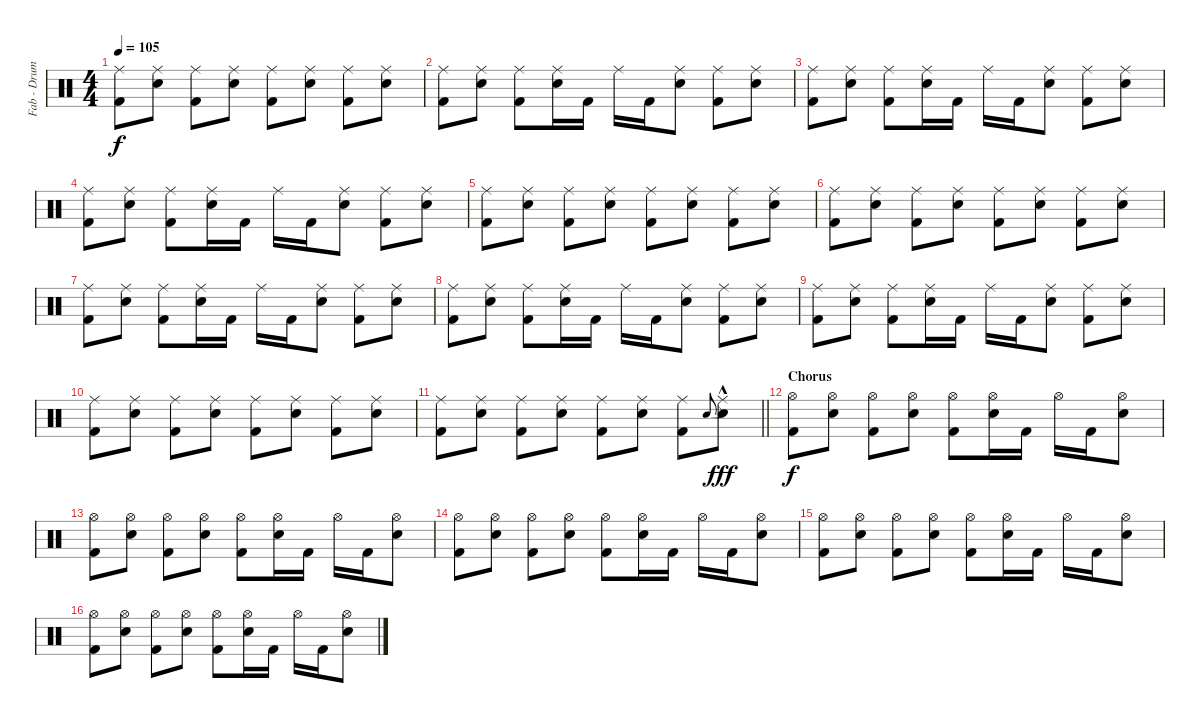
\track ("Fab - Drums MIDI" "Fab - Drum") {instrument percussion}
\staff {score}
\articulation defaults
\ts (4 4)
\tempo 105
\clef neutral
\ks c
("Ride (middle)" "Kick (hit) 2").8{dy f} ("Ride (middle)" "Snare (hit) 2").8 ("Ride (middle)" "Kick (hit) 2").8 ("Ride (middle)" "Snare (hit) 2").8 ("Ride (middle)" "Kick (hit) 2").8 ("Ride (middle)" "Snare (hit) 2").8 ("Ride (middle)" "Kick (hit) 2").8 ("Ride (middle)" "Snare (hit) 2").8 |
("Ride (middle)" "Kick (hit) 2").8 ("Ride (middle)" "Snare (hit) 2").8 ("Ride (middle)" "Kick (hit) 2").8 ("Ride (middle)" "Snare (hit) 2").16 "Kick (hit) 2".16 "Ride (middle)".16 "Kick (hit) 2".16 ("Ride (middle)" "Snare (hit) 2").8 ("Ride (middle)" "Kick (hit) 2").8 ("Ride (middle)" "Snare (hit) 2").8 |
("Ride (middle)" "Kick (hit) 2").8 ("Ride (middle)" "Snare (hit) 2").8 ("Ride (middle)" "Kick (hit) 2").8 ("Ride (middle)" "Snare (hit) 2").16 "Kick (hit) 2".16 "Ride (middle)".16 "Kick (hit) 2".16 ("Ride (middle)" "Snare (hit) 2").8 ("Ride (middle)" "Kick (hit) 2").8 ("Ride (middle)" "Snare (hit) 2").8 |
("Ride (middle)" "Kick (hit) 2").8 ("Ride (middle)" "Snare (hit) 2").8 ("Ride (middle)" "Kick (hit) 2").8 ("Ride (middle)" "Snare (hit) 2").16 "Kick (hit) 2".16 "Ride (middle)".16 "Kick (hit) 2".16 ("Ride (middle)" "Snare (hit) 2").8 ("Ride (middle)" "Kick (hit) 2").8 ("Ride (middle)" "Snare (hit) 2").8 |
("Ride (middle)" "Kick (hit) 2").8 ("Ride (middle)" "Snare (hit) 2").8 ("Ride (middle)" "Kick (hit) 2").8 ("Ride (middle)" "Snare (hit) 2").8 ("Ride (middle)" "Kick (hit) 2").8 ("Ride (middle)" "Snare (hit) 2").8 ("Ride (middle)" "Kick (hit) 2").8 ("Ride (middle)" "Snare (hit) 2").8 |
("Ride (middle)" "Kick (hit) 2").8 ("Ride (middle)" "Snare (hit) 2").8 ("Ride (middle)" "Kick (hit) 2").8 ("Ride (middle)" "Snare (hit) 2").8 ("Ride (middle)" "Kick (hit) 2").8 ("Ride (middle)" "Snare (hit) 2").8 ("Ride (middle)" "Kick (hit) 2").8 ("Ride (middle)" "Snare (hit) 2").8 |
("Ride (middle)" "Kick (hit) 2").8 ("Ride (middle)" "Snare (hit) 2").8 ("Ride (middle)" "Kick (hit) 2").8 ("Ride (middle)" "Snare (hit) 2").16 "Kick (hit) 2".16 "Ride (middle)".16 "Kick (hit) 2".16 ("Ride (middle)" "Snare (hit) 2").8 ("Ride (middle)" "Kick (hit) 2").8 ("Ride (middle)" "Snare (hit) 2").8 |
("Ride (middle)" "Kick (hit) 2").8 ("Ride (middle)" "Snare (hit) 2").8 ("Ride (middle)" "Kick (hit) 2").8 ("Ride (middle)" "Snare (hit) 2").16 "Kick (hit) 2".16 "Ride (middle)".16 "Kick (hit) 2".16 ("Ride (middle)" "Snare (hit) 2").8 ("Ride (middle)" "Kick (hit) 2").8 ("Ride (middle)" "Snare (hit) 2").8 |
("Ride (middle)" "Kick (hit) 2").8 ("Ride (middle)" "Snare (hit) 2").8 ("Ride (middle)" "Kick (hit) 2").8 ("Ride (middle)" "Snare (hit) 2").16 "Kick (hit) 2".16 "Ride (middle)".16 "Kick (hit) 2".16 ("Ride (middle)" "Snare (hit) 2").8 ("Ride (middle)" "Kick (hit) 2").8 ("Ride (middle)" "Snare (hit) 2").8 |
("Ride (middle)" "Kick (hit) 2").8 ("Ride (middle)" "Snare (hit) 2").8 ("Ride (middle)" "Kick (hit) 2").8 ("Ride (middle)" "Snare (hit) 2").8 ("Ride (middle)" "Kick (hit) 2").8 ("Ride (middle)" "Snare (hit) 2").8 ("Ride (middle)" "Kick (hit) 2").8 ("Ride (middle)" "Snare (hit) 2").8 |
\barLineRight lightlight
("Ride (middle)" "Kick (hit) 2").8 ("Ride (middle)" "Snare (hit) 2").8 ("Ride (middle)" "Kick (hit) 2").8 ("Ride (middle)" "Snare (hit) 2").8 ("Ride (middle)" "Kick (hit) 2").8 ("Ride (middle)" "Snare (hit) 2").8 ("Ride (middle)" "Kick (hit) 2").8 "Snare (hit) 2".8{gr onbeat} ("Ride (middle)"{t} "Snare (hit) 2"{hac}).8{dy fff} |
\section ("" "Chorus")
("Hi-Hat (open)" "Kick (hit) 2").8{dy f} ("Hi-Hat (open)" "Snare (hit) 2").8 ("Hi-Hat (open)" "Kick (hit) 2").8 ("Hi-Hat (open)" "Snare (hit) 2").8 ("Hi-Hat (open)" "Kick (hit) 2").8 ("Hi-Hat (open)" "Snare (hit) 2").16 "Kick (hit) 2".16 "Hi-Hat (open)".16 "Kick (hit) 2".16 ("Hi-Hat (open)" "Snare (hit) 2").8 |
("Hi-Hat (open)" "Kick (hit) 2").8 ("Hi-Hat (open)" "Snare (hit) 2").8 ("Hi-Hat (open)" "Kick (hit) 2").8 ("Hi-Hat (open)" "Snare (hit) 2").8 ("Hi-Hat (open)" "Kick (hit) 2").8 ("Hi-Hat (open)" "Snare (hit) 2").16 "Kick (hit) 2".16 "Hi-Hat (open)".16 "Kick (hit) 2".16 ("Hi-Hat (open)" "Snare (hit) 2").8 |
("Hi-Hat (open)" "Kick (hit) 2").8 ("Hi-Hat (open)" "Snare (hit) 2").8 ("Hi-Hat (open)" "Kick (hit) 2").8 ("Hi-Hat (open)" "Snare (hit) 2").8 ("Hi-Hat (open)" "Kick (hit) 2").8 ("Hi-Hat (open)" "Snare (hit) 2").16 "Kick (hit) 2".16 "Hi-Hat (open)".16 "Kick (hit) 2".16 ("Hi-Hat (open)" "Snare (hit) 2").8 |
("Hi-Hat (open)" "Kick (hit) 2").8 ("Hi-Hat (open)" "Snare (hit) 2").8 ("Hi-Hat (open)" "Kick (hit) 2").8 ("Hi-Hat (open)" "Snare (hit) 2").8 ("Hi-Hat (open)" "Kick (hit) 2").8 ("Hi-Hat (open)" "Snare (hit) 2").16 "Kick (hit) 2".16 "Hi-Hat (open)".16 "Kick (hit) 2".16 ("Hi-Hat (open)" "Snare (hit) 2").8 |
("Hi-Hat (open)" "Kick (hit) 2").8 ("Hi-Hat (open)" "Snare (hit) 2").8 ("Hi-Hat (open)" "Kick (hit) 2").8 ("Hi-Hat (open)" "Snare (hit) 2").8 ("Hi-Hat (open)" "Kick (hit) 2").8 ("Hi-Hat (open)" "Snare (hit) 2").16 "Kick (hit) 2".16 "Hi-Hat (open)".16 "Kick (hit) 2".16 ("Hi-Hat (open)" "Snare (hit) 2").8
